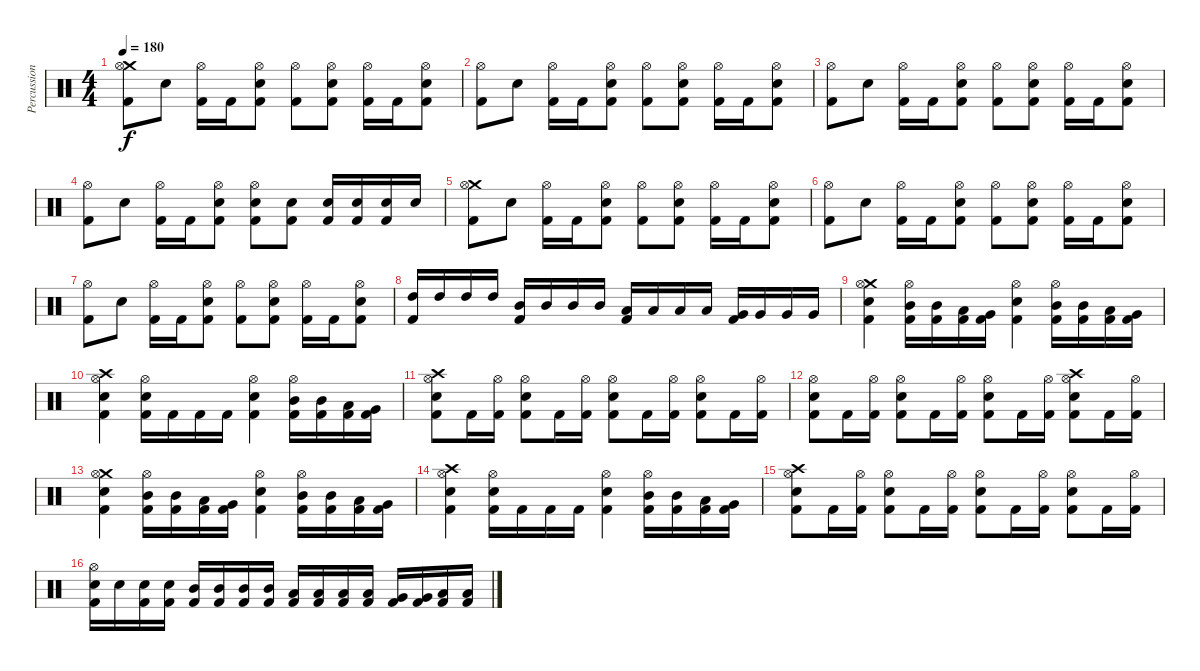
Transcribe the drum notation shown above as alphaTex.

\track ("Percussion" "Percussion") {instrument percussion}
\staff {score}
\articulation defaults
\ts (4 4)
\tempo 180
\clef neutral
\ks c
("Crash medium (hit)" "Hi-Hat (open)" "Kick (hit) 2").8{dy f} "Electric Snare (hit)".8 ("Hi-Hat (open)" "Kick (hit) 2").16 "Kick (hit) 2".16 ("Hi-Hat (open)" "Electric Snare (hit)" "Kick (hit) 2").8 ("Hi-Hat (open)" "Kick (hit) 2").8 ("Hi-Hat (open)" "Electric Snare (hit)" "Kick (hit) 2").8 ("Hi-Hat (open)" "Kick (hit) 2").16 "Kick (hit) 2".16 ("Hi-Hat (open)" "Electric Snare (hit)" "Kick (hit) 2").8 |
("Hi-Hat (open)" "Kick (hit) 2").8 "Electric Snare (hit)".8 ("Hi-Hat (open)" "Kick (hit) 2").16 "Kick (hit) 2".16 ("Hi-Hat (open)" "Electric Snare (hit)" "Kick (hit) 2").8 ("Hi-Hat (open)" "Kick (hit) 2").8 ("Hi-Hat (open)" "Electric Snare (hit)" "Kick (hit) 2").8 ("Hi-Hat (open)" "Kick (hit) 2").16 "Kick (hit) 2".16 ("Hi-Hat (open)" "Electric Snare (hit)" "Kick (hit) 2").8 |
("Hi-Hat (open)" "Kick (hit) 2").8 "Electric Snare (hit)".8 ("Hi-Hat (open)" "Kick (hit) 2").16 "Kick (hit) 2".16 ("Hi-Hat (open)" "Electric Snare (hit)" "Kick (hit) 2").8 ("Hi-Hat (open)" "Kick (hit) 2").8 ("Hi-Hat (open)" "Electric Snare (hit)" "Kick (hit) 2").8 ("Hi-Hat (open)" "Kick (hit) 2").16 "Kick (hit) 2".16 ("Hi-Hat (open)" "Electric Snare (hit)" "Kick (hit) 2").8 |
("Hi-Hat (open)" "Kick (hit) 2").8 "Electric Snare (hit)".8 ("Hi-Hat (open)" "Kick (hit) 2").16 "Kick (hit) 2".16 ("Hi-Hat (open)" "Electric Snare (hit)" "Kick (hit) 2").8 ("Hi-Hat (open)" "Electric Snare (hit)" "Kick (hit) 2").8 ("Electric Snare (hit)" "Kick (hit) 2").8 ("Electric Snare (hit)" "Kick (hit) 2").16 ("Electric Snare (hit)" "Kick (hit) 2").16 ("Electric Snare (hit)" "Kick (hit) 2").16 "Electric Snare (hit)".16 |
("Crash medium (hit)" "Hi-Hat (open)" "Kick (hit) 2").8 "Electric Snare (hit)".8 ("Hi-Hat (open)" "Kick (hit) 2").16 "Kick (hit) 2".16 ("Hi-Hat (open)" "Electric Snare (hit)" "Kick (hit) 2").8 ("Hi-Hat (open)" "Kick (hit) 2").8 ("Hi-Hat (open)" "Electric Snare (hit)" "Kick (hit) 2").8 ("Hi-Hat (open)" "Kick (hit) 2").16 "Kick (hit) 2".16 ("Hi-Hat (open)" "Electric Snare (hit)" "Kick (hit) 2").8 |
("Hi-Hat (open)" "Kick (hit) 2").8 "Electric Snare (hit)".8 ("Hi-Hat (open)" "Kick (hit) 2").16 "Kick (hit) 2".16 ("Hi-Hat (open)" "Electric Snare (hit)" "Kick (hit) 2").8 ("Hi-Hat (open)" "Kick (hit) 2").8 ("Hi-Hat (open)" "Electric Snare (hit)" "Kick (hit) 2").8 ("Hi-Hat (open)" "Kick (hit) 2").16 "Kick (hit) 2".16 ("Hi-Hat (open)" "Electric Snare (hit)" "Kick (hit) 2").8 |
("Hi-Hat (open)" "Kick (hit) 2").8 "Electric Snare (hit)".8 ("Hi-Hat (open)" "Kick (hit) 2").16 "Kick (hit) 2".16 ("Hi-Hat (open)" "Electric Snare (hit)" "Kick (hit) 2").8 ("Hi-Hat (open)" "Kick (hit) 2").8 ("Hi-Hat (open)" "Electric Snare (hit)" "Kick (hit) 2").8 ("Hi-Hat (open)" "Kick (hit) 2").16 "Kick (hit) 2".16 ("Hi-Hat (open)" "Electric Snare (hit)" "Kick (hit) 2").8 |
("High Tom (hit)" "Kick (hit) 2").16 "High Tom (hit)".16 "High Tom (hit)".16 "High Tom (hit)".16 ("Mid Tom (hit)" "Kick (hit) 2").16 "Mid Tom (hit)".16 "Mid Tom (hit)".16 "Mid Tom (hit)".16 ("Low Tom (hit)" "Kick (hit) 2").16 "Low Tom (hit)".16 "Low Tom (hit)".16 "Low Tom (hit)".16 ("Very Low Tom (hit)" "Kick (hit) 2").16 "Very Low Tom (hit)".16 "Very Low Tom (hit)".16 "Very Low Tom (hit)".16 |
("Crash medium (hit)" "Hi-Hat (open)" "Electric Snare (hit)" "Kick (hit) 2").4 ("Hi-Hat (open)" "Mid Tom (hit)" "Kick (hit) 2").16 ("Mid Tom (hit)" "Kick (hit) 2").16 ("Low Tom (hit)" "Kick (hit) 2").16 ("Very Low Tom (hit)" "Kick (hit) 2").16 ("Hi-Hat (open)" "Electric Snare (hit)" "Kick (hit) 2").4 ("Hi-Hat (open)" "Mid Tom (hit)" "Kick (hit) 2").16 ("Mid Tom (hit)" "Kick (hit) 2").16 ("Low Tom (hit)" "Kick (hit) 2").16 ("Very Low Tom (hit)" "Kick (hit) 2").16 |
("Crash high (hit)" "Hi-Hat (open)" "Electric Snare (hit)" "Kick (hit) 2").4 ("Hi-Hat (open)" "Electric Snare (hit)" "Kick (hit) 2").16 "Kick (hit) 2".16 "Kick (hit) 2".16 "Kick (hit) 2".16 ("Hi-Hat (open)" "Electric Snare (hit)" "Kick (hit) 2").4 ("Hi-Hat (open)" "Mid Tom (hit)" "Kick (hit) 2").16 ("Mid Tom (hit)" "Kick (hit) 2").16 ("Low Tom (hit)" "Kick (hit) 2").16 ("Very Low Tom (hit)" "Kick (hit) 2").16 |
("Crash high (hit)" "Hi-Hat (open)" "Electric Snare (hit)" "Kick (hit) 2").8 "Kick (hit) 2".16 ("Hi-Hat (open)" "Kick (hit) 2").16 ("Hi-Hat (open)" "Electric Snare (hit)" "Kick (hit) 2").8 "Kick (hit) 2".16 ("Hi-Hat (open)" "Kick (hit) 2").16 ("Hi-Hat (open)" "Electric Snare (hit)" "Kick (hit) 2").8 "Kick (hit) 2".16 ("Hi-Hat (open)" "Kick (hit) 2").16 ("Hi-Hat (open)" "Electric Snare (hit)" "Kick (hit) 2").8 "Kick (hit) 2".16 ("Hi-Hat (open)" "Kick (hit) 2").16 |
("Hi-Hat (open)" "Electric Snare (hit)" "Kick (hit) 2").8 "Kick (hit) 2".16 ("Hi-Hat (open)" "Kick (hit) 2").16 ("Hi-Hat (open)" "Electric Snare (hit)" "Kick (hit) 2").8 "Kick (hit) 2".16 ("Hi-Hat (open)" "Kick (hit) 2").16 ("Hi-Hat (open)" "Electric Snare (hit)" "Kick (hit) 2").8 "Kick (hit) 2".16 ("Hi-Hat (open)" "Kick (hit) 2").16 ("Crash high (hit)" "Hi-Hat (open)" "Electric Snare (hit)" "Kick (hit) 2").8 "Kick (hit) 2".16 ("Hi-Hat (open)" "Kick (hit) 2").16 |
("Crash medium (hit)" "Hi-Hat (open)" "Electric Snare (hit)" "Kick (hit) 2").4 ("Hi-Hat (open)" "Mid Tom (hit)" "Kick (hit) 2").16 ("Mid Tom (hit)" "Kick (hit) 2").16 ("Low Tom (hit)" "Kick (hit) 2").16 ("Very Low Tom (hit)" "Kick (hit) 2").16 ("Hi-Hat (open)" "Electric Snare (hit)" "Kick (hit) 2").4 ("Hi-Hat (open)" "Mid Tom (hit)" "Kick (hit) 2").16 ("Mid Tom (hit)" "Kick (hit) 2").16 ("Low Tom (hit)" "Kick (hit) 2").16 ("Very Low Tom (hit)" "Kick (hit) 2").16 |
("Crash high (hit)" "Hi-Hat (open)" "Electric Snare (hit)" "Kick (hit) 2").4 ("Hi-Hat (open)" "Electric Snare (hit)" "Kick (hit) 2").16 "Kick (hit) 2".16 "Kick (hit) 2".16 "Kick (hit) 2".16 ("Hi-Hat (open)" "Electric Snare (hit)" "Kick (hit) 2").4 ("Hi-Hat (open)" "Mid Tom (hit)" "Kick (hit) 2").16 ("Mid Tom (hit)" "Kick (hit) 2").16 ("Low Tom (hit)" "Kick (hit) 2").16 ("Very Low Tom (hit)" "Kick (hit) 2").16 |
("Crash high (hit)" "Hi-Hat (open)" "Electric Snare (hit)" "Kick (hit) 2").8 "Kick (hit) 2".16 ("Hi-Hat (open)" "Kick (hit) 2").16 ("Hi-Hat (open)" "Electric Snare (hit)" "Kick (hit) 2").8 "Kick (hit) 2".16 ("Hi-Hat (open)" "Kick (hit) 2").16 ("Hi-Hat (open)" "Electric Snare (hit)" "Kick (hit) 2").8 "Kick (hit) 2".16 ("Hi-Hat (open)" "Kick (hit) 2").16 ("Hi-Hat (open)" "Electric Snare (hit)" "Kick (hit) 2").8 "Kick (hit) 2".16 ("Hi-Hat (open)" "Kick (hit) 2").16 |
("Hi-Hat (open)" "Electric Snare (hit)" "Kick (hit) 2").16 "Electric Snare (hit)".16 ("Electric Snare (hit)" "Kick (hit) 2").16 ("Electric Snare (hit)" "Kick (hit) 2").16 ("Mid Tom (hit)" "Kick (hit) 2").16 ("Mid Tom (hit)" "Kick (hit) 2").16 ("Mid Tom (hit)" "Kick (hit) 2").16 ("Mid Tom (hit)" "Kick (hit) 2").16 ("Low Tom (hit)" "Kick (hit) 2").16 ("Low Tom (hit)" "Kick (hit) 2").16 ("Low Tom (hit)" "Kick (hit) 2").16 ("Low Tom (hit)" "Kick (hit) 2").16 ("Very Low Tom (hit)" "Kick (hit) 2").16 ("Very Low Tom (hit)" "Kick (hit) 2").16 ("Low Floor Tom (hit)" "Kick (hit) 2").16 ("Low Floor Tom (hit)" "Kick (hit) 2").16
